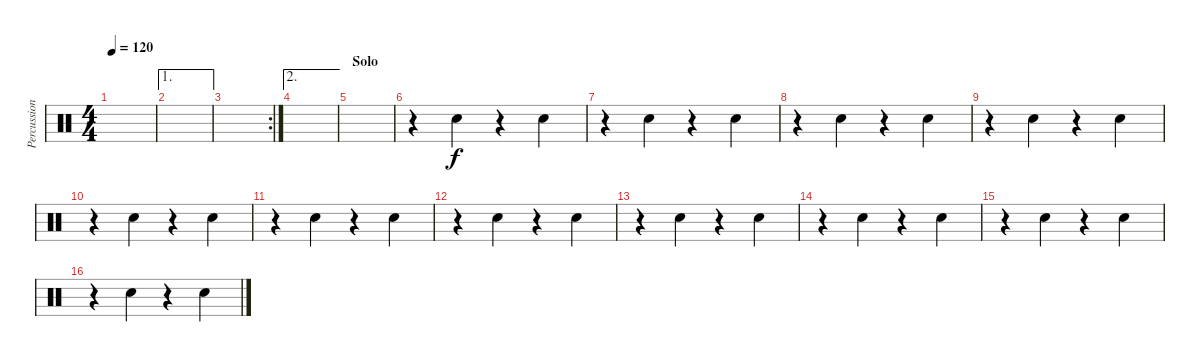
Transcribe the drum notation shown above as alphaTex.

\track ("Percussion 1" "Percussion") {instrument percussion}
\staff {score}
\articulation defaults
\ts (4 4)
\tempo 120
\clef neutral
\ks c
|
\ae 1
|
\rc 2
|
\ae 2
|
\section ("" "Solo")
|
r.4{volume 12} "Electric Snare (hit)".4 r.4 "Electric Snare (hit)".4 |
r.4 "Electric Snare (hit)".4 r.4 "Electric Snare (hit)".4 |
r.4 "Electric Snare (hit)".4 r.4 "Electric Snare (hit)".4 |
r.4 "Electric Snare (hit)".4 r.4 "Electric Snare (hit)".4 |
r.4 "Electric Snare (hit)".4 r.4 "Electric Snare (hit)".4 |
r.4 "Electric Snare (hit)".4 r.4 "Electric Snare (hit)".4 |
r.4 "Electric Snare (hit)".4 r.4 "Electric Snare (hit)".4 |
r.4 "Electric Snare (hit)".4 r.4 "Electric Snare (hit)".4 |
r.4 "Electric Snare (hit)".4 r.4 "Electric Snare (hit)".4 |
r.4 "Electric Snare (hit)".4 r.4 "Electric Snare (hit)".4 |
r.4 "Electric Snare (hit)".4 r.4 "Electric Snare (hit)".4
